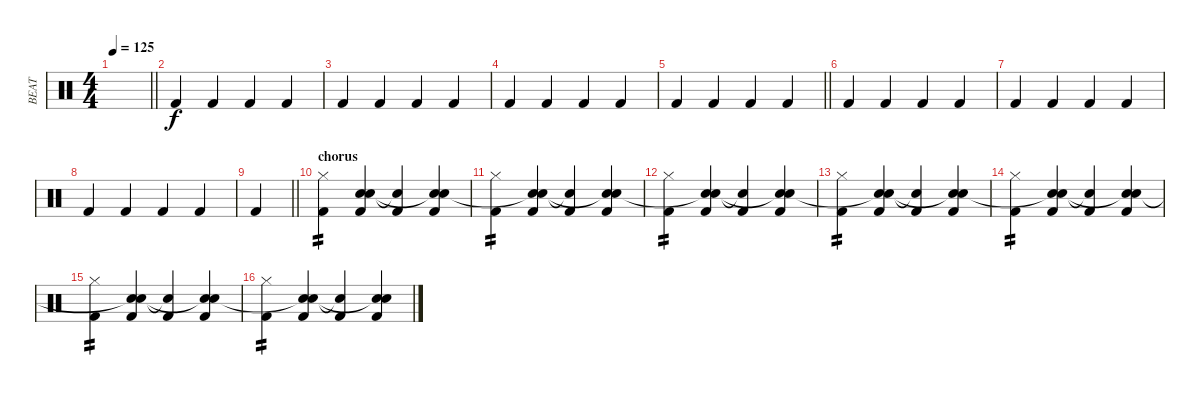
\track ("BEAT" "BEAT") {instrument percussion bank 2}
\staff {score}
\articulation defaults
\ts (4 4)
\tempo 125
\clef neutral
\barLineRight lightlight
\ks c
|
\section ("" "")
"Kick (hit) 2".4 "Kick (hit) 2".4 "Kick (hit) 2".4 "Kick (hit) 2".4 |
"Kick (hit) 2".4 "Kick (hit) 2".4 "Kick (hit) 2".4 "Kick (hit) 2".4 |
"Kick (hit) 2".4 "Kick (hit) 2".4 "Kick (hit) 2".4 "Kick (hit) 2".4 |
\barLineRight lightlight "Kick (hit) 2".4 "Kick (hit) 2".4 "Kick (hit) 2".4 "Kick (hit) 2".4
|
\section ("" "")
"Kick (hit) 2".4 "Kick (hit) 2".4 "Kick (hit) 2".4 "Kick (hit) 2".4 |
"Kick (hit) 2".4 "Kick (hit) 2".4 "Kick (hit) 2".4 "Kick (hit) 2".4 |
"Kick (hit) 2".4 "Kick (hit) 2".4 "Kick (hit) 2".4 "Kick (hit) 2".4 |
\barLineRight lightlight "Kick (hit) 2".4
|
\section ("" "chorus")
("Kick (hit) 2" "Hi-Hat (closed)").4{tp 2} ("Kick (hit) 2" "Electric Snare (hit)" "Snare (hit)").4 ("Kick (hit) 2" "Snare (hit)"{t}).4 ("Kick (hit) 2" "Electric Snare (hit)" "Snare (hit)"{t}).4 |
("Kick (hit) 2" "Hi-Hat (closed)").4{tp 2} ("Kick (hit) 2" "Electric Snare (hit)" "Snare (hit)"{t}).4 ("Kick (hit) 2" "Snare (hit)"{t}).4 ("Kick (hit) 2" "Electric Snare (hit)" "Snare (hit)"{t}).4 |
("Kick (hit) 2" "Hi-Hat (closed)").4{tp 2} ("Kick (hit) 2" "Electric Snare (hit)" "Snare (hit)"{t}).4 ("Kick (hit) 2" "Snare (hit)"{t}).4 ("Kick (hit) 2" "Electric Snare (hit)" "Snare (hit)"{t}).4 |
("Kick (hit) 2" "Hi-Hat (closed)").4{tp 2} ("Kick (hit) 2" "Electric Snare (hit)" "Snare (hit)"{t}).4 ("Kick (hit) 2" "Snare (hit)"{t}).4 ("Kick (hit) 2" "Electric Snare (hit)" "Snare (hit)"{t}).4 |
("Kick (hit) 2" "Hi-Hat (closed)").4{tp 2} ("Kick (hit) 2" "Electric Snare (hit)" "Snare (hit)"{t}).4 ("Kick (hit) 2" "Snare (hit)"{t}).4 ("Kick (hit) 2" "Electric Snare (hit)" "Snare (hit)"{t}).4 |
("Kick (hit) 2" "Hi-Hat (closed)").4{tp 2} ("Kick (hit) 2" "Electric Snare (hit)" "Snare (hit)"{t}).4 ("Kick (hit) 2" "Snare (hit)"{t}).4 ("Kick (hit) 2" "Electric Snare (hit)" "Snare (hit)"{t}).4 |
("Kick (hit) 2" "Hi-Hat (closed)").4{tp 2} ("Kick (hit) 2" "Electric Snare (hit)" "Snare (hit)"{t}).4 ("Kick (hit) 2" "Snare (hit)"{t}).4 ("Kick (hit) 2" "Electric Snare (hit)" "Snare (hit)"{t}).4
